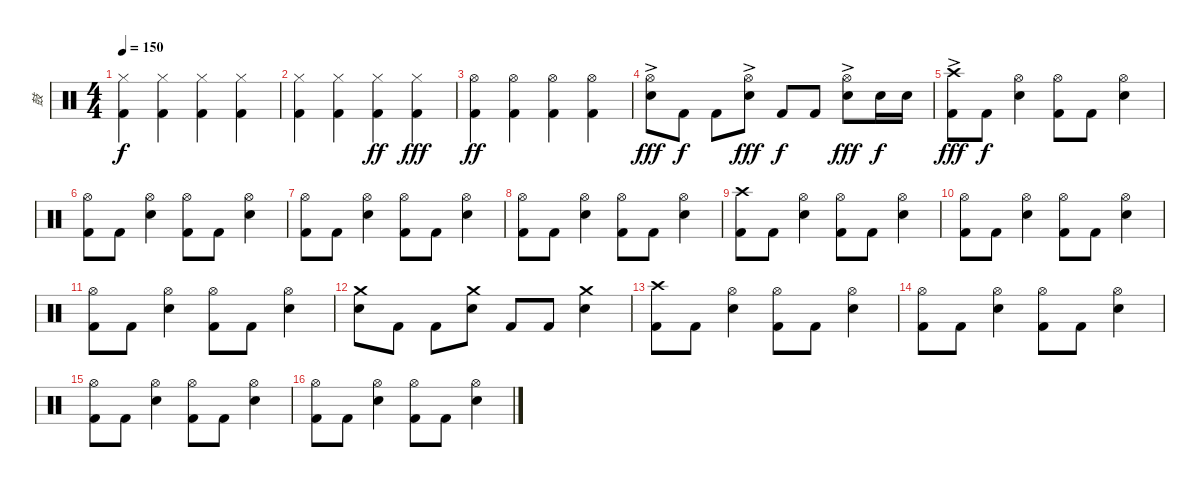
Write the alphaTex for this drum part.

\track ("鼓" "鼓") {instrument percussion}
\staff {score}
\articulation defaults
\ts (4 4)
\tempo 150
\clef neutral
\ks c
("Hi-Hat (closed)" "Kick (hit) 2").4{dy f} ("Hi-Hat (closed)" "Kick (hit) 2").4 ("Hi-Hat (closed)" "Kick (hit) 2").4 ("Hi-Hat (closed)" "Kick (hit) 2").4 |
("Hi-Hat (closed)" "Kick (hit) 2").4 ("Hi-Hat (closed)" "Kick (hit) 2").4 ("Hi-Hat (closed)" "Kick (hit) 2").4{dy ff} ("Hi-Hat (closed)" "Kick (hit) 2").4{dy fff} |
("Hi-Hat (open)" "Kick (hit) 2").4{dy ff} ("Hi-Hat (open)" "Kick (hit) 2").4 ("Hi-Hat (open)" "Kick (hit) 2").4 ("Hi-Hat (open)" "Kick (hit) 2").4 |
("Hi-Hat (open)"{ac} "Snare (hit) 2").8{dy fff} "Kick (hit) 2".8{dy f} "Kick (hit) 2".8 ("Hi-Hat (open)"{ac} "Snare (hit) 2").8{dy fff} "Kick (hit) 2".8{dy f} "Kick (hit) 2".8 ("Hi-Hat (open)"{ac} "Snare (hit) 2").8{dy fff} "Snare (hit) 2".16{dy f} "Snare (hit) 2".16 |
("Crash high (hit)"{ac} "Kick (hit) 2").8{dy fff} "Kick (hit) 2".8{dy f} ("Hi-Hat (open)" "Snare (hit) 2").4 ("Hi-Hat (open)" "Kick (hit) 2").8 "Kick (hit) 2".8 ("Hi-Hat (open)" "Snare (hit) 2").4 |
("Hi-Hat (open)" "Kick (hit) 2").8 "Kick (hit) 2".8 ("Hi-Hat (open)" "Snare (hit) 2").4 ("Hi-Hat (open)" "Kick (hit) 2").8 "Kick (hit) 2".8 ("Hi-Hat (open)" "Snare (hit) 2").4 |
("Hi-Hat (open)" "Kick (hit) 2").8 "Kick (hit) 2".8 ("Hi-Hat (open)" "Snare (hit) 2").4 ("Hi-Hat (open)" "Kick (hit) 2").8 "Kick (hit) 2".8 ("Hi-Hat (open)" "Snare (hit) 2").4 |
("Hi-Hat (open)" "Kick (hit) 2").8 "Kick (hit) 2".8 ("Hi-Hat (open)" "Snare (hit) 2").4 ("Hi-Hat (open)" "Kick (hit) 2").8 "Kick (hit) 2".8 ("Hi-Hat (open)" "Snare (hit) 2").4 |
("Crash high (hit)" "Kick (hit) 2").8 "Kick (hit) 2".8 ("Hi-Hat (open)" "Snare (hit) 2").4 ("Hi-Hat (open)" "Kick (hit) 2").8 "Kick (hit) 2".8 ("Hi-Hat (open)" "Snare (hit) 2").4 |
("Hi-Hat (open)" "Kick (hit) 2").8 "Kick (hit) 2".8 ("Hi-Hat (open)" "Snare (hit) 2").4 ("Hi-Hat (open)" "Kick (hit) 2").8 "Kick (hit) 2".8 ("Hi-Hat (open)" "Snare (hit) 2").4 |
("Hi-Hat (open)" "Kick (hit) 2").8 "Kick (hit) 2".8 ("Hi-Hat (open)" "Snare (hit) 2").4 ("Hi-Hat (open)" "Kick (hit) 2").8 "Kick (hit) 2".8 ("Hi-Hat (open)" "Snare (hit) 2").4 |
("Crash medium (hit)" "Snare (hit) 2").8 "Kick (hit) 2".8 "Kick (hit) 2".8 ("Crash medium (hit)" "Snare (hit) 2").8 "Kick (hit) 2".8 "Kick (hit) 2".8 ("Crash medium (hit)" "Snare (hit) 2").4 |
("Crash high (hit)" "Kick (hit) 2").8 "Kick (hit) 2".8 ("Hi-Hat (open)" "Snare (hit) 2").4 ("Hi-Hat (open)" "Kick (hit) 2").8 "Kick (hit) 2".8 ("Hi-Hat (open)" "Snare (hit) 2").4 |
("Hi-Hat (open)" "Kick (hit) 2").8 "Kick (hit) 2".8 ("Hi-Hat (open)" "Snare (hit) 2").4 ("Hi-Hat (open)" "Kick (hit) 2").8 "Kick (hit) 2".8 ("Hi-Hat (open)" "Snare (hit) 2").4 |
("Hi-Hat (open)" "Kick (hit) 2").8 "Kick (hit) 2".8 ("Hi-Hat (open)" "Snare (hit) 2").4 ("Hi-Hat (open)" "Kick (hit) 2").8 "Kick (hit) 2".8 ("Hi-Hat (open)" "Snare (hit) 2").4 |
("Hi-Hat (open)" "Kick (hit) 2").8 "Kick (hit) 2".8 ("Hi-Hat (open)" "Snare (hit) 2").4 ("Hi-Hat (open)" "Kick (hit) 2").8 "Kick (hit) 2".8 ("Hi-Hat (open)" "Snare (hit) 2").4
